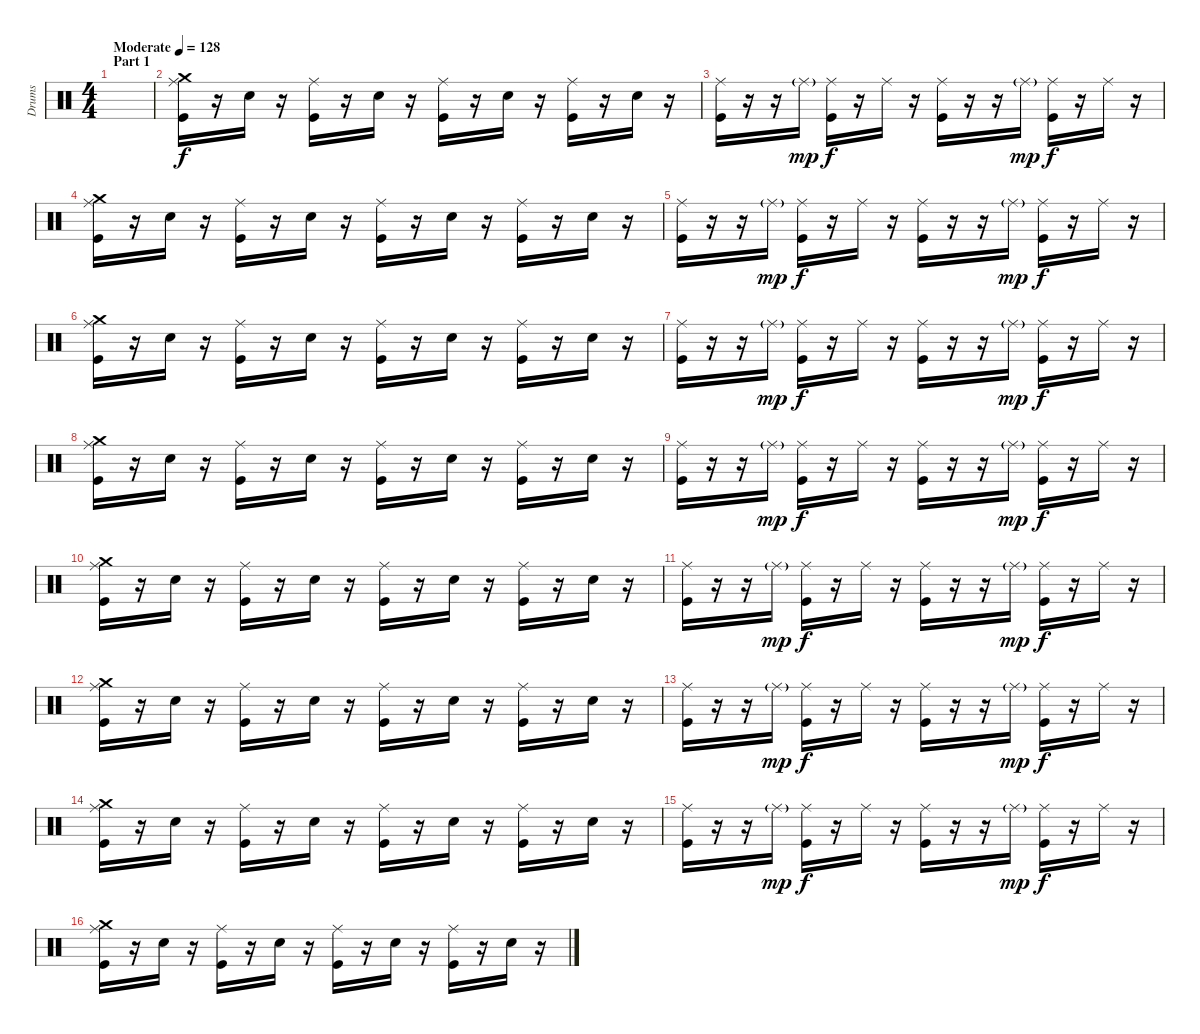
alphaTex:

\track ("Drums" "Drums") {instrument percussion}
\staff {score}
\articulation defaults
\ts (4 4)
\section ("" "Part 1")
\tempo (128 "Moderate")
\clef neutral
\ks c
|
("Ride (middle)" "Crash medium (hit)" "Kick (hit)").16 r.16 "Electric Snare (hit)".16 r.16 ("Ride (middle)" "Kick (hit)").16 r.16 "Electric Snare (hit)".16 r.16 ("Ride (middle)" "Kick (hit)").16 r.16 "Electric Snare (hit)".16 r.16 ("Ride (middle)" "Kick (hit)").16 r.16 "Electric Snare (hit)".16 r.16 |
("Ride (middle)" "Kick (hit)").16 r.16 r.16 "Ride (middle)"{g}.16{dy mp} ("Ride (middle)" "Kick (hit)").16{dy f} r.16 "Ride (middle)".16 r.16 ("Ride (middle)" "Kick (hit)").16 r.16 r.16 "Ride (middle)"{g}.16{dy mp} ("Ride (middle)" "Kick (hit)").16{dy f} r.16 "Ride (middle)".16 r.16 |
("Ride (middle)" "Crash medium (hit)" "Kick (hit)").16 r.16 "Electric Snare (hit)".16 r.16 ("Ride (middle)" "Kick (hit)").16 r.16 "Electric Snare (hit)".16 r.16 ("Ride (middle)" "Kick (hit)").16 r.16 "Electric Snare (hit)".16 r.16 ("Ride (middle)" "Kick (hit)").16 r.16 "Electric Snare (hit)".16 r.16 |
("Ride (middle)" "Kick (hit)").16 r.16 r.16 "Ride (middle)"{g}.16{dy mp} ("Ride (middle)" "Kick (hit)").16{dy f} r.16 "Ride (middle)".16 r.16 ("Ride (middle)" "Kick (hit)").16 r.16 r.16 "Ride (middle)"{g}.16{dy mp} ("Ride (middle)" "Kick (hit)").16{dy f} r.16 "Ride (middle)".16 r.16 |
("Ride (middle)" "Crash medium (hit)" "Kick (hit)").16 r.16 "Electric Snare (hit)".16 r.16 ("Ride (middle)" "Kick (hit)").16 r.16 "Electric Snare (hit)".16 r.16 ("Ride (middle)" "Kick (hit)").16 r.16 "Electric Snare (hit)".16 r.16 ("Ride (middle)" "Kick (hit)").16 r.16 "Electric Snare (hit)".16 r.16 |
("Ride (middle)" "Kick (hit)").16 r.16 r.16 "Ride (middle)"{g}.16{dy mp} ("Ride (middle)" "Kick (hit)").16{dy f} r.16 "Ride (middle)".16 r.16 ("Ride (middle)" "Kick (hit)").16 r.16 r.16 "Ride (middle)"{g}.16{dy mp} ("Ride (middle)" "Kick (hit)").16{dy f} r.16 "Ride (middle)".16 r.16 |
("Ride (middle)" "Crash medium (hit)" "Kick (hit)").16 r.16 "Electric Snare (hit)".16 r.16 ("Ride (middle)" "Kick (hit)").16 r.16 "Electric Snare (hit)".16 r.16 ("Ride (middle)" "Kick (hit)").16 r.16 "Electric Snare (hit)".16 r.16 ("Ride (middle)" "Kick (hit)").16 r.16 "Electric Snare (hit)".16 r.16 |
("Ride (middle)" "Kick (hit)").16 r.16 r.16 "Ride (middle)"{g}.16{dy mp} ("Ride (middle)" "Kick (hit)").16{dy f} r.16 "Ride (middle)".16 r.16 ("Ride (middle)" "Kick (hit)").16 r.16 r.16 "Ride (middle)"{g}.16{dy mp} ("Ride (middle)" "Kick (hit)").16{dy f} r.16 "Ride (middle)".16 r.16 |
("Ride (middle)" "Crash medium (hit)" "Kick (hit)").16 r.16 "Electric Snare (hit)".16 r.16 ("Ride (middle)" "Kick (hit)").16 r.16 "Electric Snare (hit)".16 r.16 ("Ride (middle)" "Kick (hit)").16 r.16 "Electric Snare (hit)".16 r.16 ("Ride (middle)" "Kick (hit)").16 r.16 "Electric Snare (hit)".16 r.16 |
("Ride (middle)" "Kick (hit)").16 r.16 r.16 "Ride (middle)"{g}.16{dy mp} ("Ride (middle)" "Kick (hit)").16{dy f} r.16 "Ride (middle)".16 r.16 ("Ride (middle)" "Kick (hit)").16 r.16 r.16 "Ride (middle)"{g}.16{dy mp} ("Ride (middle)" "Kick (hit)").16{dy f} r.16 "Ride (middle)".16 r.16 |
("Ride (middle)" "Crash medium (hit)" "Kick (hit)").16 r.16 "Electric Snare (hit)".16 r.16 ("Ride (middle)" "Kick (hit)").16 r.16 "Electric Snare (hit)".16 r.16 ("Ride (middle)" "Kick (hit)").16 r.16 "Electric Snare (hit)".16 r.16 ("Ride (middle)" "Kick (hit)").16 r.16 "Electric Snare (hit)".16 r.16 |
("Ride (middle)" "Kick (hit)").16 r.16 r.16 "Ride (middle)"{g}.16{dy mp} ("Ride (middle)" "Kick (hit)").16{dy f} r.16 "Ride (middle)".16 r.16 ("Ride (middle)" "Kick (hit)").16 r.16 r.16 "Ride (middle)"{g}.16{dy mp} ("Ride (middle)" "Kick (hit)").16{dy f} r.16 "Ride (middle)".16 r.16 |
("Ride (middle)" "Crash medium (hit)" "Kick (hit)").16 r.16 "Electric Snare (hit)".16 r.16 ("Ride (middle)" "Kick (hit)").16 r.16 "Electric Snare (hit)".16 r.16 ("Ride (middle)" "Kick (hit)").16 r.16 "Electric Snare (hit)".16 r.16 ("Ride (middle)" "Kick (hit)").16 r.16 "Electric Snare (hit)".16 r.16 |
("Ride (middle)" "Kick (hit)").16 r.16 r.16 "Ride (middle)"{g}.16{dy mp} ("Ride (middle)" "Kick (hit)").16{dy f} r.16 "Ride (middle)".16 r.16 ("Ride (middle)" "Kick (hit)").16 r.16 r.16 "Ride (middle)"{g}.16{dy mp} ("Ride (middle)" "Kick (hit)").16{dy f} r.16 "Ride (middle)".16 r.16 |
("Ride (middle)" "Crash medium (hit)" "Kick (hit)").16 r.16 "Electric Snare (hit)".16 r.16 ("Ride (middle)" "Kick (hit)").16 r.16 "Electric Snare (hit)".16 r.16 ("Ride (middle)" "Kick (hit)").16 r.16 "Electric Snare (hit)".16 r.16 ("Ride (middle)" "Kick (hit)").16 r.16 "Electric Snare (hit)".16 r.16
